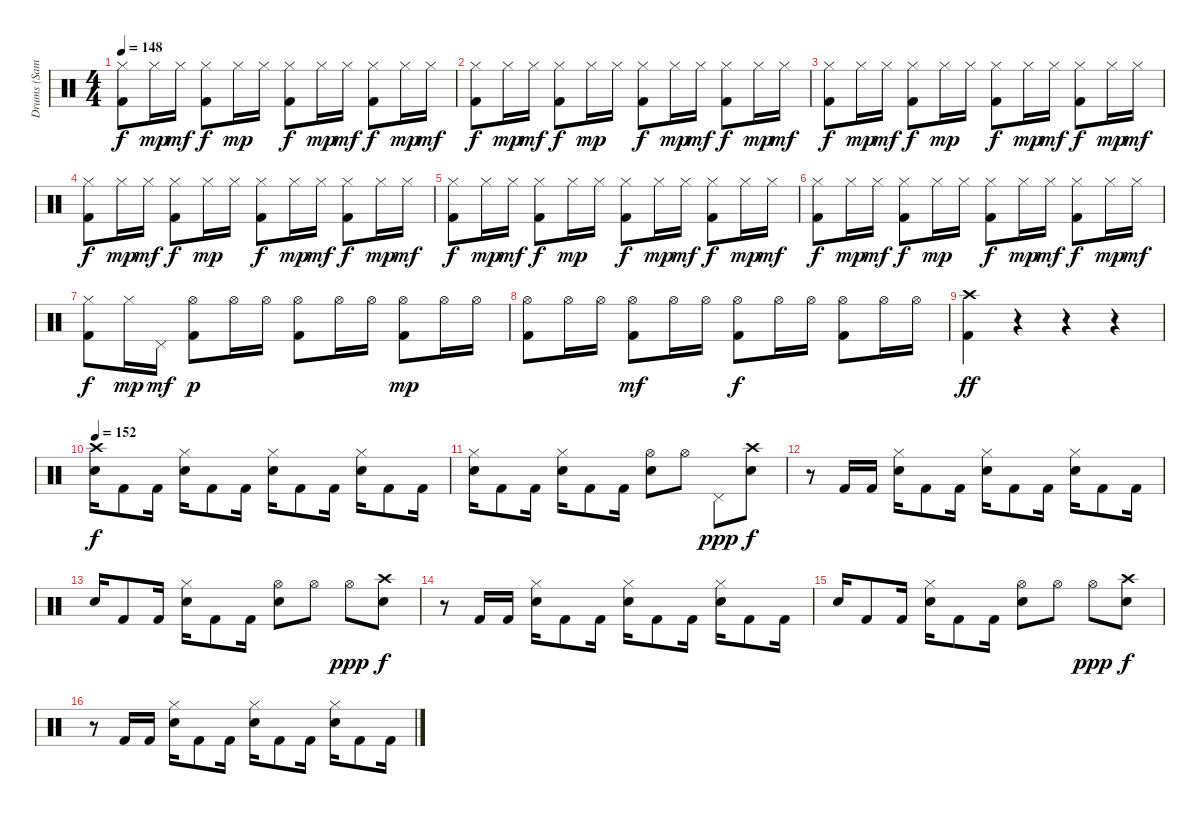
\track ("Drums (Samuelson)" "Drums (Sam") {instrument percussion}
\staff
\articulation defaults
\ts (4 4)
\tempo 148
\clef neutral
\ks c
("Hi-Hat (closed)" "Kick (hit) 2").8{dy f} "Hi-Hat (closed)".16{dy mp} "Hi-Hat (closed)".16{dy mf} ("Hi-Hat (closed)" "Kick (hit) 2").8{dy f} "Hi-Hat (closed)".16{dy mp} "Hi-Hat (closed)".16 ("Hi-Hat (closed)" "Kick (hit) 2").8{dy f} "Hi-Hat (closed)".16{dy mp} "Hi-Hat (closed)".16{dy mf} ("Hi-Hat (closed)" "Kick (hit) 2").8{dy f} "Hi-Hat (closed)".16{dy mp} "Hi-Hat (closed)".16{dy mf} |
("Hi-Hat (closed)" "Kick (hit) 2").8{dy f} "Hi-Hat (closed)".16{dy mp} "Hi-Hat (closed)".16{dy mf} ("Hi-Hat (closed)" "Kick (hit) 2").8{dy f} "Hi-Hat (closed)".16{dy mp} "Hi-Hat (closed)".16 ("Hi-Hat (closed)" "Kick (hit) 2").8{dy f} "Hi-Hat (closed)".16{dy mp} "Hi-Hat (closed)".16{dy mf} ("Hi-Hat (closed)" "Kick (hit) 2").8{dy f} "Hi-Hat (closed)".16{dy mp} "Hi-Hat (closed)".16{dy mf} |
("Hi-Hat (closed)" "Kick (hit) 2").8{dy f} "Hi-Hat (closed)".16{dy mp} "Hi-Hat (closed)".16{dy mf} ("Hi-Hat (closed)" "Kick (hit) 2").8{dy f} "Hi-Hat (closed)".16{dy mp} "Hi-Hat (closed)".16 ("Hi-Hat (closed)" "Kick (hit) 2").8{dy f} "Hi-Hat (closed)".16{dy mp} "Hi-Hat (closed)".16{dy mf} ("Hi-Hat (closed)" "Kick (hit) 2").8{dy f} "Hi-Hat (closed)".16{dy mp} "Hi-Hat (closed)".16{dy mf} |
("Hi-Hat (closed)" "Kick (hit) 2").8{dy f} "Hi-Hat (closed)".16{dy mp} "Hi-Hat (closed)".16{dy mf} ("Hi-Hat (closed)" "Kick (hit) 2").8{dy f} "Hi-Hat (closed)".16{dy mp} "Hi-Hat (closed)".16 ("Hi-Hat (closed)" "Kick (hit) 2").8{dy f} "Hi-Hat (closed)".16{dy mp} "Hi-Hat (closed)".16{dy mf} ("Hi-Hat (closed)" "Kick (hit) 2").8{dy f} "Hi-Hat (closed)".16{dy mp} "Hi-Hat (closed)".16{dy mf} |
("Hi-Hat (closed)" "Kick (hit) 2").8{dy f} "Hi-Hat (closed)".16{dy mp} "Hi-Hat (closed)".16{dy mf} ("Hi-Hat (closed)" "Kick (hit) 2").8{dy f} "Hi-Hat (closed)".16{dy mp} "Hi-Hat (closed)".16 ("Hi-Hat (closed)" "Kick (hit) 2").8{dy f} "Hi-Hat (closed)".16{dy mp} "Hi-Hat (closed)".16{dy mf} ("Hi-Hat (closed)" "Kick (hit) 2").8{dy f} "Hi-Hat (closed)".16{dy mp} "Hi-Hat (closed)".16{dy mf} |
("Hi-Hat (closed)" "Kick (hit) 2").8{dy f} "Hi-Hat (closed)".16{dy mp} "Hi-Hat (closed)".16{dy mf} ("Hi-Hat (closed)" "Kick (hit) 2").8{dy f} "Hi-Hat (closed)".16{dy mp} "Hi-Hat (closed)".16 ("Hi-Hat (closed)" "Kick (hit) 2").8{dy f} "Hi-Hat (closed)".16{dy mp} "Hi-Hat (closed)".16{dy mf} ("Hi-Hat (closed)" "Kick (hit) 2").8{dy f} "Hi-Hat (closed)".16{dy mp} "Hi-Hat (closed)".16{dy mf} |
("Hi-Hat (closed)" "Kick (hit) 2").8{dy f} "Hi-Hat (closed)".16{dy mp} "Pedal Hi-Hat (hit)".16{dy mf} ("Hi-Hat (open)" "Kick (hit) 2").8{dy p} "Hi-Hat (open)".16 "Hi-Hat (open)".16 ("Hi-Hat (open)" "Kick (hit) 2").8 "Hi-Hat (open)".16 "Hi-Hat (open)".16 ("Hi-Hat (open)" "Kick (hit) 2").8{dy mp} "Hi-Hat (open)".16 "Hi-Hat (open)".16 |
("Hi-Hat (open)" "Kick (hit) 2").8 "Hi-Hat (open)".16 "Hi-Hat (open)".16 ("Hi-Hat (open)" "Kick (hit) 2").8{dy mf} "Hi-Hat (open)".16 "Hi-Hat (open)".16 ("Hi-Hat (open)" "Kick (hit) 2").8{dy f} "Hi-Hat (open)".16 "Hi-Hat (open)".16 ("Hi-Hat (open)" "Kick (hit) 2").8 "Hi-Hat (open)".16 "Hi-Hat (open)".16 |
("Crash high (hit)" "Kick (hit) 2").4{dy ff} r.4 r.4 r.4 |
\tempo 152
("Crash high (hit)" "Electric Snare (hit)").16{dy f} "Kick (hit) 2".8 "Kick (hit) 2".16 ("Hi-Hat (closed)" "Electric Snare (hit)").16 "Kick (hit) 2".8 "Kick (hit) 2".16 ("Hi-Hat (closed)" "Electric Snare (hit)").16 "Kick (hit) 2".8 "Kick (hit) 2".16 ("Hi-Hat (closed)" "Electric Snare (hit)").16 "Kick (hit) 2".8 "Kick (hit) 2".16 |
("Hi-Hat (closed)" "Electric Snare (hit)").16 "Kick (hit) 2".8 "Kick (hit) 2".16 ("Hi-Hat (closed)" "Electric Snare (hit)").16 "Kick (hit) 2".8 "Kick (hit) 2".16 ("Hi-Hat (open)" "Electric Snare (hit)").8 "Hi-Hat (open)".8 "Pedal Hi-Hat (hit)".8{dy ppp} ("Crash high (hit)" "Electric Snare (hit)").8{dy f} |
r.8 "Kick (hit) 2".16 "Kick (hit) 2".16 ("Hi-Hat (closed)" "Electric Snare (hit)").16 "Kick (hit) 2".8 "Kick (hit) 2".16 ("Hi-Hat (closed)" "Electric Snare (hit)").16 "Kick (hit) 2".8 "Kick (hit) 2".16 ("Hi-Hat (closed)" "Electric Snare (hit)").16 "Kick (hit) 2".8 "Kick (hit) 2".16 |
"Electric Snare (hit)".16 "Kick (hit) 2".8 "Kick (hit) 2".16 ("Hi-Hat (closed)" "Electric Snare (hit)").16 "Kick (hit) 2".8 "Kick (hit) 2".16 ("Hi-Hat (open)" "Electric Snare (hit)").8 "Hi-Hat (open)".8 "Hi-Hat (open)".8{dy ppp} ("Crash high (hit)" "Electric Snare (hit)").8{dy f} |
r.8 "Kick (hit) 2".16 "Kick (hit) 2".16 ("Hi-Hat (closed)" "Electric Snare (hit)").16 "Kick (hit) 2".8 "Kick (hit) 2".16 ("Hi-Hat (closed)" "Electric Snare (hit)").16 "Kick (hit) 2".8 "Kick (hit) 2".16 ("Hi-Hat (closed)" "Electric Snare (hit)").16 "Kick (hit) 2".8 "Kick (hit) 2".16 |
"Electric Snare (hit)".16 "Kick (hit) 2".8 "Kick (hit) 2".16 ("Hi-Hat (closed)" "Electric Snare (hit)").16 "Kick (hit) 2".8 "Kick (hit) 2".16 ("Hi-Hat (open)" "Electric Snare (hit)").8 "Hi-Hat (open)".8 "Hi-Hat (open)".8{dy ppp} ("Crash high (hit)" "Electric Snare (hit)").8{dy f} |
r.8 "Kick (hit) 2".16 "Kick (hit) 2".16 ("Hi-Hat (closed)" "Electric Snare (hit)").16 "Kick (hit) 2".8 "Kick (hit) 2".16 ("Hi-Hat (closed)" "Electric Snare (hit)").16 "Kick (hit) 2".8 "Kick (hit) 2".16 ("Hi-Hat (closed)" "Electric Snare (hit)").16 "Kick (hit) 2".8 "Kick (hit) 2".16
